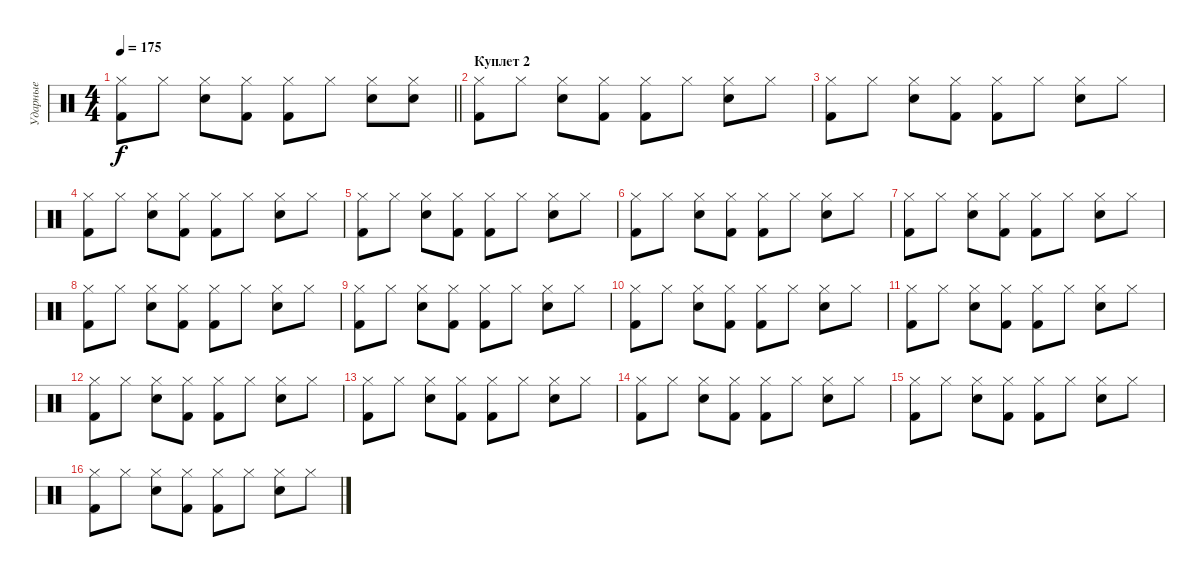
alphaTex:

\track ("Ударные" "Ударные") {instrument percussion}
\staff {score}
\articulation defaults
\ts (4 4)
\tempo 175
\clef neutral
\barLineRight lightlight
\ks c
("Hi-Hat (closed)" "Kick (hit) 2").8{dy f} "Hi-Hat (closed)".8 ("Hi-Hat (closed)" "Snare (hit) 2").8 ("Hi-Hat (closed)" "Kick (hit) 2").8 ("Hi-Hat (closed)" "Kick (hit) 2").8 "Hi-Hat (closed)".8 ("Hi-Hat (closed)" "Snare (hit) 2").8 ("Hi-Hat (closed)" "Snare (hit) 2").8 |
\section ("" "Куплет 2")
("Hi-Hat (closed)" "Kick (hit) 2").8 "Hi-Hat (closed)".8 ("Hi-Hat (closed)" "Snare (hit) 2").8 ("Hi-Hat (closed)" "Kick (hit) 2").8 ("Hi-Hat (closed)" "Kick (hit) 2").8 "Hi-Hat (closed)".8 ("Hi-Hat (closed)" "Snare (hit) 2").8 "Hi-Hat (closed)".8 |
("Hi-Hat (closed)" "Kick (hit) 2").8 "Hi-Hat (closed)".8 ("Hi-Hat (closed)" "Snare (hit) 2").8 ("Hi-Hat (closed)" "Kick (hit) 2").8 ("Hi-Hat (closed)" "Kick (hit) 2").8 "Hi-Hat (closed)".8 ("Hi-Hat (closed)" "Snare (hit) 2").8 "Hi-Hat (closed)".8 |
("Hi-Hat (closed)" "Kick (hit) 2").8 "Hi-Hat (closed)".8 ("Hi-Hat (closed)" "Snare (hit) 2").8 ("Hi-Hat (closed)" "Kick (hit) 2").8 ("Hi-Hat (closed)" "Kick (hit) 2").8 "Hi-Hat (closed)".8 ("Hi-Hat (closed)" "Snare (hit) 2").8 "Hi-Hat (closed)".8 |
("Hi-Hat (closed)" "Kick (hit) 2").8 "Hi-Hat (closed)".8 ("Hi-Hat (closed)" "Snare (hit) 2").8 ("Hi-Hat (closed)" "Kick (hit) 2").8 ("Hi-Hat (closed)" "Kick (hit) 2").8 "Hi-Hat (closed)".8 ("Hi-Hat (closed)" "Snare (hit) 2").8 "Hi-Hat (closed)".8 |
("Hi-Hat (closed)" "Kick (hit) 2").8 "Hi-Hat (closed)".8 ("Hi-Hat (closed)" "Snare (hit) 2").8 ("Hi-Hat (closed)" "Kick (hit) 2").8 ("Hi-Hat (closed)" "Kick (hit) 2").8 "Hi-Hat (closed)".8 ("Hi-Hat (closed)" "Snare (hit) 2").8 "Hi-Hat (closed)".8 |
("Hi-Hat (closed)" "Kick (hit) 2").8 "Hi-Hat (closed)".8 ("Hi-Hat (closed)" "Snare (hit) 2").8 ("Hi-Hat (closed)" "Kick (hit) 2").8 ("Hi-Hat (closed)" "Kick (hit) 2").8 "Hi-Hat (closed)".8 ("Hi-Hat (closed)" "Snare (hit) 2").8 "Hi-Hat (closed)".8 |
("Hi-Hat (closed)" "Kick (hit) 2").8 "Hi-Hat (closed)".8 ("Hi-Hat (closed)" "Snare (hit) 2").8 ("Hi-Hat (closed)" "Kick (hit) 2").8 ("Hi-Hat (closed)" "Kick (hit) 2").8 "Hi-Hat (closed)".8 ("Hi-Hat (closed)" "Snare (hit) 2").8 "Hi-Hat (closed)".8 |
("Hi-Hat (closed)" "Kick (hit) 2").8 "Hi-Hat (closed)".8 ("Hi-Hat (closed)" "Snare (hit) 2").8 ("Hi-Hat (closed)" "Kick (hit) 2").8 ("Hi-Hat (closed)" "Kick (hit) 2").8 "Hi-Hat (closed)".8 ("Hi-Hat (closed)" "Snare (hit) 2").8 "Hi-Hat (closed)".8 |
("Hi-Hat (closed)" "Kick (hit) 2").8 "Hi-Hat (closed)".8 ("Hi-Hat (closed)" "Snare (hit) 2").8 ("Hi-Hat (closed)" "Kick (hit) 2").8 ("Hi-Hat (closed)" "Kick (hit) 2").8 "Hi-Hat (closed)".8 ("Hi-Hat (closed)" "Snare (hit) 2").8 "Hi-Hat (closed)".8 |
("Hi-Hat (closed)" "Kick (hit) 2").8 "Hi-Hat (closed)".8 ("Hi-Hat (closed)" "Snare (hit) 2").8 ("Hi-Hat (closed)" "Kick (hit) 2").8 ("Hi-Hat (closed)" "Kick (hit) 2").8 "Hi-Hat (closed)".8 ("Hi-Hat (closed)" "Snare (hit) 2").8 "Hi-Hat (closed)".8 |
("Hi-Hat (closed)" "Kick (hit) 2").8 "Hi-Hat (closed)".8 ("Hi-Hat (closed)" "Snare (hit) 2").8 ("Hi-Hat (closed)" "Kick (hit) 2").8 ("Hi-Hat (closed)" "Kick (hit) 2").8 "Hi-Hat (closed)".8 ("Hi-Hat (closed)" "Snare (hit) 2").8 "Hi-Hat (closed)".8 |
("Hi-Hat (closed)" "Kick (hit) 2").8 "Hi-Hat (closed)".8 ("Hi-Hat (closed)" "Snare (hit) 2").8 ("Hi-Hat (closed)" "Kick (hit) 2").8 ("Hi-Hat (closed)" "Kick (hit) 2").8 "Hi-Hat (closed)".8 ("Hi-Hat (closed)" "Snare (hit) 2").8 "Hi-Hat (closed)".8 |
("Hi-Hat (closed)" "Kick (hit) 2").8 "Hi-Hat (closed)".8 ("Hi-Hat (closed)" "Snare (hit) 2").8 ("Hi-Hat (closed)" "Kick (hit) 2").8 ("Hi-Hat (closed)" "Kick (hit) 2").8 "Hi-Hat (closed)".8 ("Hi-Hat (closed)" "Snare (hit) 2").8 "Hi-Hat (closed)".8 |
("Hi-Hat (closed)" "Kick (hit) 2").8 "Hi-Hat (closed)".8 ("Hi-Hat (closed)" "Snare (hit) 2").8 ("Hi-Hat (closed)" "Kick (hit) 2").8 ("Hi-Hat (closed)" "Kick (hit) 2").8 "Hi-Hat (closed)".8 ("Hi-Hat (closed)" "Snare (hit) 2").8 "Hi-Hat (closed)".8 |
("Hi-Hat (closed)" "Kick (hit) 2").8 "Hi-Hat (closed)".8 ("Hi-Hat (closed)" "Snare (hit) 2").8 ("Hi-Hat (closed)" "Kick (hit) 2").8 ("Hi-Hat (closed)" "Kick (hit) 2").8 "Hi-Hat (closed)".8 ("Hi-Hat (closed)" "Snare (hit) 2").8 "Hi-Hat (closed)".8
